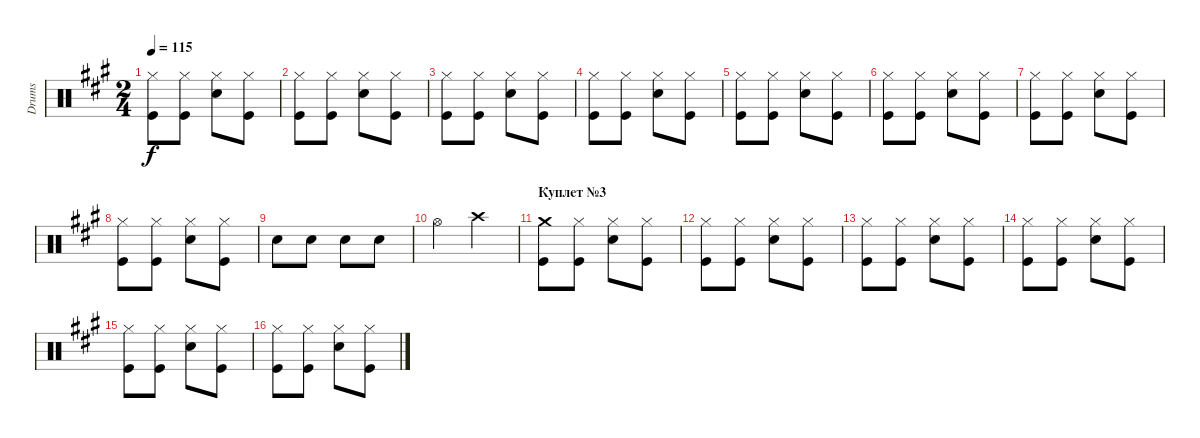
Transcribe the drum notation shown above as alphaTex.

\track ("Drums" "Drums") {instrument percussion}
\staff {score}
\articulation defaults
\ts (2 4)
\tempo 115
\clef neutral
\ks f#minor
("Hi-Hat (closed)" "Kick (hit)").8{dy f} ("Hi-Hat (closed)" "Kick (hit)").8 ("Hi-Hat (closed)" "Electric Snare (hit)").8 ("Hi-Hat (closed)" "Kick (hit)").8 |
("Hi-Hat (closed)" "Kick (hit)").8 ("Hi-Hat (closed)" "Kick (hit)").8 ("Hi-Hat (closed)" "Electric Snare (hit)").8 ("Hi-Hat (closed)" "Kick (hit)").8 |
("Hi-Hat (closed)" "Kick (hit)").8 ("Hi-Hat (closed)" "Kick (hit)").8 ("Hi-Hat (closed)" "Electric Snare (hit)").8 ("Hi-Hat (closed)" "Kick (hit)").8 |
("Hi-Hat (closed)" "Kick (hit)").8 ("Hi-Hat (closed)" "Kick (hit)").8 ("Hi-Hat (closed)" "Electric Snare (hit)").8 ("Hi-Hat (closed)" "Kick (hit)").8 |
("Hi-Hat (closed)" "Kick (hit)").8 ("Hi-Hat (closed)" "Kick (hit)").8 ("Hi-Hat (closed)" "Electric Snare (hit)").8 ("Hi-Hat (closed)" "Kick (hit)").8 |
("Hi-Hat (closed)" "Kick (hit)").8 ("Hi-Hat (closed)" "Kick (hit)").8 ("Hi-Hat (closed)" "Electric Snare (hit)").8 ("Hi-Hat (closed)" "Kick (hit)").8 |
("Hi-Hat (closed)" "Kick (hit)").8 ("Hi-Hat (closed)" "Kick (hit)").8 ("Hi-Hat (closed)" "Electric Snare (hit)").8 ("Hi-Hat (closed)" "Kick (hit)").8 |
("Hi-Hat (closed)" "Kick (hit)").8 ("Hi-Hat (closed)" "Kick (hit)").8 ("Hi-Hat (closed)" "Electric Snare (hit)").8 ("Hi-Hat (closed)" "Kick (hit)").8 |
"Electric Snare (hit)".8 "Electric Snare (hit)".8 "Electric Snare (hit)".8 "Electric Snare (hit)".8 |
"Hi-Hat (open)".4 "Crash high (hit)".4 |
\section ("" "Куплет №3")
("Crash medium (hit)" "Kick (hit)").8 ("Hi-Hat (closed)" "Kick (hit)").8 ("Hi-Hat (closed)" "Electric Snare (hit)").8 ("Hi-Hat (closed)" "Kick (hit)").8 |
("Hi-Hat (closed)" "Kick (hit)").8 ("Hi-Hat (closed)" "Kick (hit)").8 ("Hi-Hat (closed)" "Electric Snare (hit)").8 ("Hi-Hat (closed)" "Kick (hit)").8 |
("Hi-Hat (closed)" "Kick (hit)").8 ("Hi-Hat (closed)" "Kick (hit)").8 ("Hi-Hat (closed)" "Electric Snare (hit)").8 ("Hi-Hat (closed)" "Kick (hit)").8 |
("Hi-Hat (closed)" "Kick (hit)").8 ("Hi-Hat (closed)" "Kick (hit)").8 ("Hi-Hat (closed)" "Electric Snare (hit)").8 ("Hi-Hat (closed)" "Kick (hit)").8 |
("Hi-Hat (closed)" "Kick (hit)").8 ("Hi-Hat (closed)" "Kick (hit)").8 ("Hi-Hat (closed)" "Electric Snare (hit)").8 ("Hi-Hat (closed)" "Kick (hit)").8 |
("Hi-Hat (closed)" "Kick (hit)").8 ("Hi-Hat (closed)" "Kick (hit)").8 ("Hi-Hat (closed)" "Electric Snare (hit)").8 ("Hi-Hat (closed)" "Kick (hit)").8
